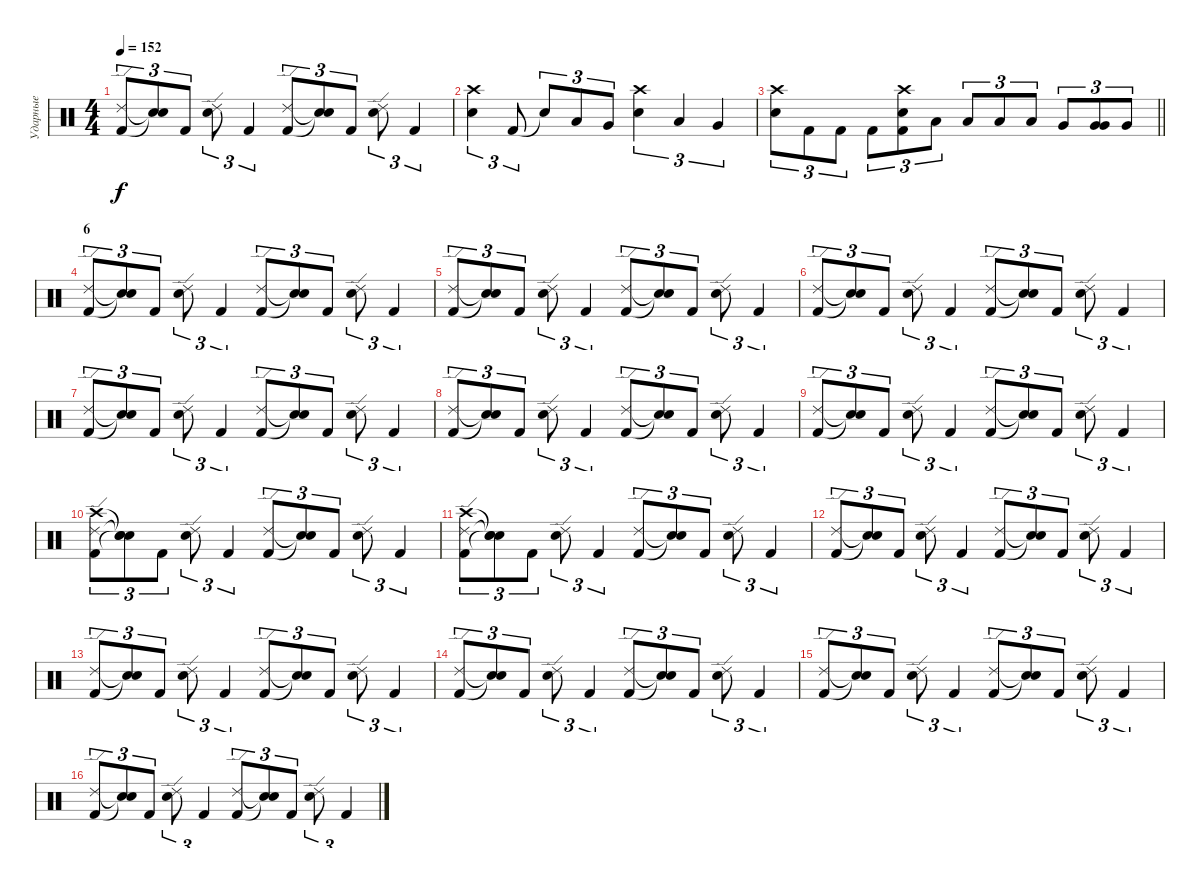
\track ("Ударные" "Ударные") {instrument percussion}
\staff {score}
\articulation defaults
\ts (4 4)
\tempo 152
\clef neutral
\ks c
("Kick (hit) 2" "Ride (edge) 2").8{tu (3 2) dy f} ("Snare (hit)"{t} "Snare (hit)"{t}).8{tu (3 2)} "Kick (hit) 2".8{tu (3 2)} ("Electric Snare (hit)" "Ride (edge) 2").8{tu (3 2)} "Kick (hit) 2".4{tu (3 2)} ("Kick (hit) 2" "Ride (edge) 2").8{tu (3 2)} ("Snare (hit)"{t} "Snare (hit)"{t}).8{tu (3 2)} "Kick (hit) 2".8{tu (3 2)} ("Electric Snare (hit)" "Ride (edge) 2").8{tu (3 2)} "Kick (hit) 2".4{tu (3 2)} |
("Electric Snare (hit)" "Crash high (hit)").4{tu (3 2)} "Kick (hit) 2".8{tu (3 2)} "Snare (hit)"{t}.8{tu (3 2)} "Low Tom (hit)".8{tu (3 2)} "Very Low Tom (hit)".8{tu (3 2)} ("Electric Snare (hit)" "Crash high (hit)").4{tu (3 2)} "Low Tom (hit)".4{tu (3 2)} "Very Low Tom (hit)".4{tu (3 2)} |
\barLineRight lightlight
("Electric Snare (hit)" "Crash high (hit)").8{tu (3 2)} "Kick (hit) 2".8{tu (3 2)} "Kick (hit) 2".8{tu (3 2)} "Kick (hit) 2".8{tu (3 2)} ("Kick (hit) 2" "Electric Snare (hit)" "Crash high (hit)").8{tu (3 2)} "Low Tom (hit)".8{tu (3 2)} "Low Tom (hit)".8{tu (3 2)} "Low Tom (hit)".8{tu (3 2)} "Low Tom (hit)".8{tu (3 2)} "Very Low Tom (hit)".8{tu (3 2)} ("Very Low Tom (hit)" "Very Low Tom (hit)").8{tu (3 2)} "Very Low Tom (hit)".8{tu (3 2)} |
\section ("" "6")
("Kick (hit) 2" "Ride (edge) 2").8{tu (3 2)} ("Snare (hit)"{t} "Snare (hit)"{t}).8{tu (3 2)} "Kick (hit) 2".8{tu (3 2)} ("Electric Snare (hit)" "Ride (edge) 2").8{tu (3 2)} "Kick (hit) 2".4{tu (3 2)} ("Kick (hit) 2" "Ride (edge) 2").8{tu (3 2)} ("Snare (hit)"{t} "Snare (hit)"{t}).8{tu (3 2)} "Kick (hit) 2".8{tu (3 2)} ("Electric Snare (hit)" "Ride (edge) 2").8{tu (3 2)} "Kick (hit) 2".4{tu (3 2)} |
("Kick (hit) 2" "Ride (edge) 2").8{tu (3 2)} ("Snare (hit)"{t} "Snare (hit)"{t}).8{tu (3 2)} "Kick (hit) 2".8{tu (3 2)} ("Electric Snare (hit)" "Ride (edge) 2").8{tu (3 2)} "Kick (hit) 2".4{tu (3 2)} ("Kick (hit) 2" "Ride (edge) 2").8{tu (3 2)} ("Snare (hit)"{t} "Snare (hit)"{t}).8{tu (3 2)} "Kick (hit) 2".8{tu (3 2)} ("Electric Snare (hit)" "Ride (edge) 2").8{tu (3 2)} "Kick (hit) 2".4{tu (3 2)} |
("Kick (hit) 2" "Ride (edge) 2").8{tu (3 2)} ("Snare (hit)"{t} "Snare (hit)"{t}).8{tu (3 2)} "Kick (hit) 2".8{tu (3 2)} ("Electric Snare (hit)" "Ride (edge) 2").8{tu (3 2)} "Kick (hit) 2".4{tu (3 2)} ("Kick (hit) 2" "Ride (edge) 2").8{tu (3 2)} ("Snare (hit)"{t} "Snare (hit)"{t}).8{tu (3 2)} "Kick (hit) 2".8{tu (3 2)} ("Electric Snare (hit)" "Ride (edge) 2").8{tu (3 2)} "Kick (hit) 2".4{tu (3 2)} |
("Kick (hit) 2" "Ride (edge) 2").8{tu (3 2)} ("Snare (hit)"{t} "Snare (hit)"{t}).8{tu (3 2)} "Kick (hit) 2".8{tu (3 2)} ("Electric Snare (hit)" "Ride (edge) 2").8{tu (3 2)} "Kick (hit) 2".4{tu (3 2)} ("Kick (hit) 2" "Ride (edge) 2").8{tu (3 2)} ("Snare (hit)"{t} "Snare (hit)"{t}).8{tu (3 2)} "Kick (hit) 2".8{tu (3 2)} ("Electric Snare (hit)" "Ride (edge) 2").8{tu (3 2)} "Kick (hit) 2".4{tu (3 2)} |
("Kick (hit) 2" "Ride (edge) 2").8{tu (3 2)} ("Snare (hit)"{t} "Snare (hit)"{t}).8{tu (3 2)} "Kick (hit) 2".8{tu (3 2)} ("Electric Snare (hit)" "Ride (edge) 2").8{tu (3 2)} "Kick (hit) 2".4{tu (3 2)} ("Kick (hit) 2" "Ride (edge) 2").8{tu (3 2)} ("Snare (hit)"{t} "Snare (hit)"{t}).8{tu (3 2)} "Kick (hit) 2".8{tu (3 2)} ("Electric Snare (hit)" "Ride (edge) 2").8{tu (3 2)} "Kick (hit) 2".4{tu (3 2)} |
("Kick (hit) 2" "Ride (edge) 2").8{tu (3 2)} ("Snare (hit)"{t} "Snare (hit)"{t}).8{tu (3 2)} "Kick (hit) 2".8{tu (3 2)} ("Electric Snare (hit)" "Ride (edge) 2").8{tu (3 2)} "Kick (hit) 2".4{tu (3 2)} ("Kick (hit) 2" "Ride (edge) 2").8{tu (3 2)} ("Snare (hit)"{t} "Snare (hit)"{t}).8{tu (3 2)} "Kick (hit) 2".8{tu (3 2)} ("Electric Snare (hit)" "Ride (edge) 2").8{tu (3 2)} "Kick (hit) 2".4{tu (3 2)} |
("Kick (hit) 2" "Crash high (hit)" "Ride (edge) 2").8{tu (3 2)} ("Snare (hit)"{t} "Snare (hit)"{t} "Snare (hit)"{t}).8{tu (3 2)} "Kick (hit) 2".8{tu (3 2)} ("Electric Snare (hit)" "Ride (edge) 2").8{tu (3 2)} "Kick (hit) 2".4{tu (3 2)} ("Kick (hit) 2" "Ride (edge) 2").8{tu (3 2)} ("Snare (hit)"{t} "Snare (hit)"{t}).8{tu (3 2)} "Kick (hit) 2".8{tu (3 2)} ("Electric Snare (hit)" "Ride (edge) 2").8{tu (3 2)} "Kick (hit) 2".4{tu (3 2)} |
("Kick (hit) 2" "Crash high (hit)" "Ride (edge) 2").8{tu (3 2)} ("Snare (hit)"{t} "Snare (hit)"{t} "Snare (hit)"{t}).8{tu (3 2)} "Kick (hit) 2".8{tu (3 2)} ("Electric Snare (hit)" "Ride (edge) 2").8{tu (3 2)} "Kick (hit) 2".4{tu (3 2)} ("Kick (hit) 2" "Ride (edge) 2").8{tu (3 2)} ("Snare (hit)"{t} "Snare (hit)"{t}).8{tu (3 2)} "Kick (hit) 2".8{tu (3 2)} ("Electric Snare (hit)" "Ride (edge) 2").8{tu (3 2)} "Kick (hit) 2".4{tu (3 2)} |
("Kick (hit) 2" "Ride (edge) 2").8{tu (3 2)} ("Snare (hit)"{t} "Snare (hit)"{t}).8{tu (3 2)} "Kick (hit) 2".8{tu (3 2)} ("Electric Snare (hit)" "Ride (edge) 2").8{tu (3 2)} "Kick (hit) 2".4{tu (3 2)} ("Kick (hit) 2" "Ride (edge) 2").8{tu (3 2)} ("Snare (hit)"{t} "Snare (hit)"{t}).8{tu (3 2)} "Kick (hit) 2".8{tu (3 2)} ("Electric Snare (hit)" "Ride (edge) 2").8{tu (3 2)} "Kick (hit) 2".4{tu (3 2)} |
("Kick (hit) 2" "Ride (edge) 2").8{tu (3 2)} ("Snare (hit)"{t} "Snare (hit)"{t}).8{tu (3 2)} "Kick (hit) 2".8{tu (3 2)} ("Electric Snare (hit)" "Ride (edge) 2").8{tu (3 2)} "Kick (hit) 2".4{tu (3 2)} ("Kick (hit) 2" "Ride (edge) 2").8{tu (3 2)} ("Snare (hit)"{t} "Snare (hit)"{t}).8{tu (3 2)} "Kick (hit) 2".8{tu (3 2)} ("Electric Snare (hit)" "Ride (edge) 2").8{tu (3 2)} "Kick (hit) 2".4{tu (3 2)} |
("Kick (hit) 2" "Ride (edge) 2").8{tu (3 2)} ("Snare (hit)"{t} "Snare (hit)"{t}).8{tu (3 2)} "Kick (hit) 2".8{tu (3 2)} ("Electric Snare (hit)" "Ride (edge) 2").8{tu (3 2)} "Kick (hit) 2".4{tu (3 2)} ("Kick (hit) 2" "Ride (edge) 2").8{tu (3 2)} ("Snare (hit)"{t} "Snare (hit)"{t}).8{tu (3 2)} "Kick (hit) 2".8{tu (3 2)} ("Electric Snare (hit)" "Ride (edge) 2").8{tu (3 2)} "Kick (hit) 2".4{tu (3 2)} |
("Kick (hit) 2" "Ride (edge) 2").8{tu (3 2)} ("Snare (hit)"{t} "Snare (hit)"{t}).8{tu (3 2)} "Kick (hit) 2".8{tu (3 2)} ("Electric Snare (hit)" "Ride (edge) 2").8{tu (3 2)} "Kick (hit) 2".4{tu (3 2)} ("Kick (hit) 2" "Ride (edge) 2").8{tu (3 2)} ("Snare (hit)"{t} "Snare (hit)"{t}).8{tu (3 2)} "Kick (hit) 2".8{tu (3 2)} ("Electric Snare (hit)" "Ride (edge) 2").8{tu (3 2)} "Kick (hit) 2".4{tu (3 2)} |
("Kick (hit) 2" "Ride (edge) 2").8{tu (3 2)} ("Snare (hit)"{t} "Snare (hit)"{t}).8{tu (3 2)} "Kick (hit) 2".8{tu (3 2)} ("Electric Snare (hit)" "Ride (edge) 2").8{tu (3 2)} "Kick (hit) 2".4{tu (3 2)} ("Kick (hit) 2" "Ride (edge) 2").8{tu (3 2)} ("Snare (hit)"{t} "Snare (hit)"{t}).8{tu (3 2)} "Kick (hit) 2".8{tu (3 2)} ("Electric Snare (hit)" "Ride (edge) 2").8{tu (3 2)} "Kick (hit) 2".4{tu (3 2)}
